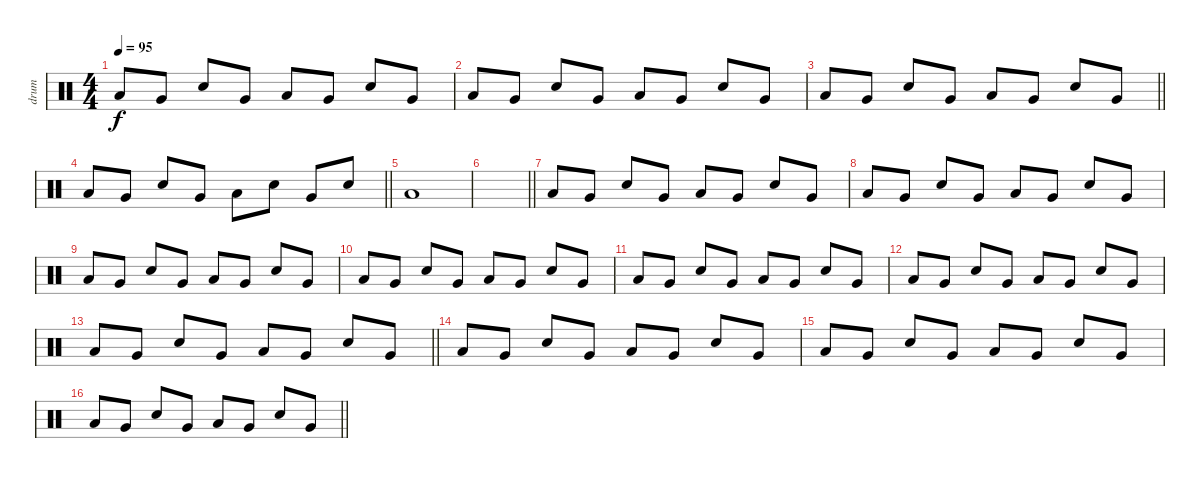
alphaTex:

\track ("drum" "drum") {instrument percussion}
\staff {score}
\articulation defaults
\ts (4 4)
\tempo 95
\clef neutral
\ks c "Low Floor Tom (hit)".8{dy f} "Very Low Tom (hit)".8 "Snare (hit) 2".8 "Very Low Tom (hit)".8 "Low Floor Tom (hit)".8 "Very Low Tom (hit)".8 "Snare (hit) 2".8 "Very Low Tom (hit)".8
|
"Low Floor Tom (hit)".8 "Very Low Tom (hit)".8 "Snare (hit) 2".8 "Very Low Tom (hit)".8 "Low Floor Tom (hit)".8 "Very Low Tom (hit)".8 "Snare (hit) 2".8 "Very Low Tom (hit)".8 |
\barLineRight lightlight "Low Floor Tom (hit)".8 "Very Low Tom (hit)".8 "Snare (hit) 2".8 "Very Low Tom (hit)".8 "Low Floor Tom (hit)".8 "Very Low Tom (hit)".8 "Snare (hit) 2".8 "Very Low Tom (hit)".8
|
\section ("" "")
\barLineRight lightlight "Low Floor Tom (hit)".8 "Very Low Tom (hit)".8 "Snare (hit) 2".8 "Very Low Tom (hit)".8 "Low Floor Tom (hit)".8 "Snare (hit) 2".8 "Very Low Tom (hit)".8 "Snare (hit) 2".8
|
\section ("" "")
"Low Floor Tom (hit)".1 |
\barLineRight lightlight
|
\section ("" "")
"Low Floor Tom (hit)".8 "Very Low Tom (hit)".8 "Snare (hit) 2".8 "Very Low Tom (hit)".8 "Low Floor Tom (hit)".8 "Very Low Tom (hit)".8 "Snare (hit) 2".8 "Very Low Tom (hit)".8 |
"Low Floor Tom (hit)".8 "Very Low Tom (hit)".8 "Snare (hit) 2".8 "Very Low Tom (hit)".8 "Low Floor Tom (hit)".8 "Very Low Tom (hit)".8 "Snare (hit) 2".8 "Very Low Tom (hit)".8 |
"Low Floor Tom (hit)".8 "Very Low Tom (hit)".8 "Snare (hit) 2".8 "Very Low Tom (hit)".8 "Low Floor Tom (hit)".8 "Very Low Tom (hit)".8 "Snare (hit) 2".8 "Very Low Tom (hit)".8 |
"Low Floor Tom (hit)".8 "Very Low Tom (hit)".8 "Snare (hit) 2".8 "Very Low Tom (hit)".8 "Low Floor Tom (hit)".8 "Very Low Tom (hit)".8 "Snare (hit) 2".8 "Very Low Tom (hit)".8 |
"Low Floor Tom (hit)".8 "Very Low Tom (hit)".8 "Snare (hit) 2".8 "Very Low Tom (hit)".8 "Low Floor Tom (hit)".8 "Very Low Tom (hit)".8 "Snare (hit) 2".8 "Very Low Tom (hit)".8 |
"Low Floor Tom (hit)".8 "Very Low Tom (hit)".8 "Snare (hit) 2".8 "Very Low Tom (hit)".8 "Low Floor Tom (hit)".8 "Very Low Tom (hit)".8 "Snare (hit) 2".8 "Very Low Tom (hit)".8 |
\barLineRight lightlight "Low Floor Tom (hit)".8 "Very Low Tom (hit)".8 "Snare (hit) 2".8 "Very Low Tom (hit)".8 "Low Floor Tom (hit)".8 "Very Low Tom (hit)".8 "Snare (hit) 2".8 "Very Low Tom (hit)".8
|
"Low Floor Tom (hit)".8 "Very Low Tom (hit)".8 "Snare (hit) 2".8 "Very Low Tom (hit)".8 "Low Floor Tom (hit)".8 "Very Low Tom (hit)".8 "Snare (hit) 2".8 "Very Low Tom (hit)".8 |
"Low Floor Tom (hit)".8 "Very Low Tom (hit)".8 "Snare (hit) 2".8 "Very Low Tom (hit)".8 "Low Floor Tom (hit)".8 "Very Low Tom (hit)".8 "Snare (hit) 2".8 "Very Low Tom (hit)".8 |
\barLineRight lightlight "Low Floor Tom (hit)".8 "Very Low Tom (hit)".8 "Snare (hit) 2".8 "Very Low Tom (hit)".8 "Low Floor Tom (hit)".8 "Very Low Tom (hit)".8 "Snare (hit) 2".8 "Very Low Tom (hit)".8
